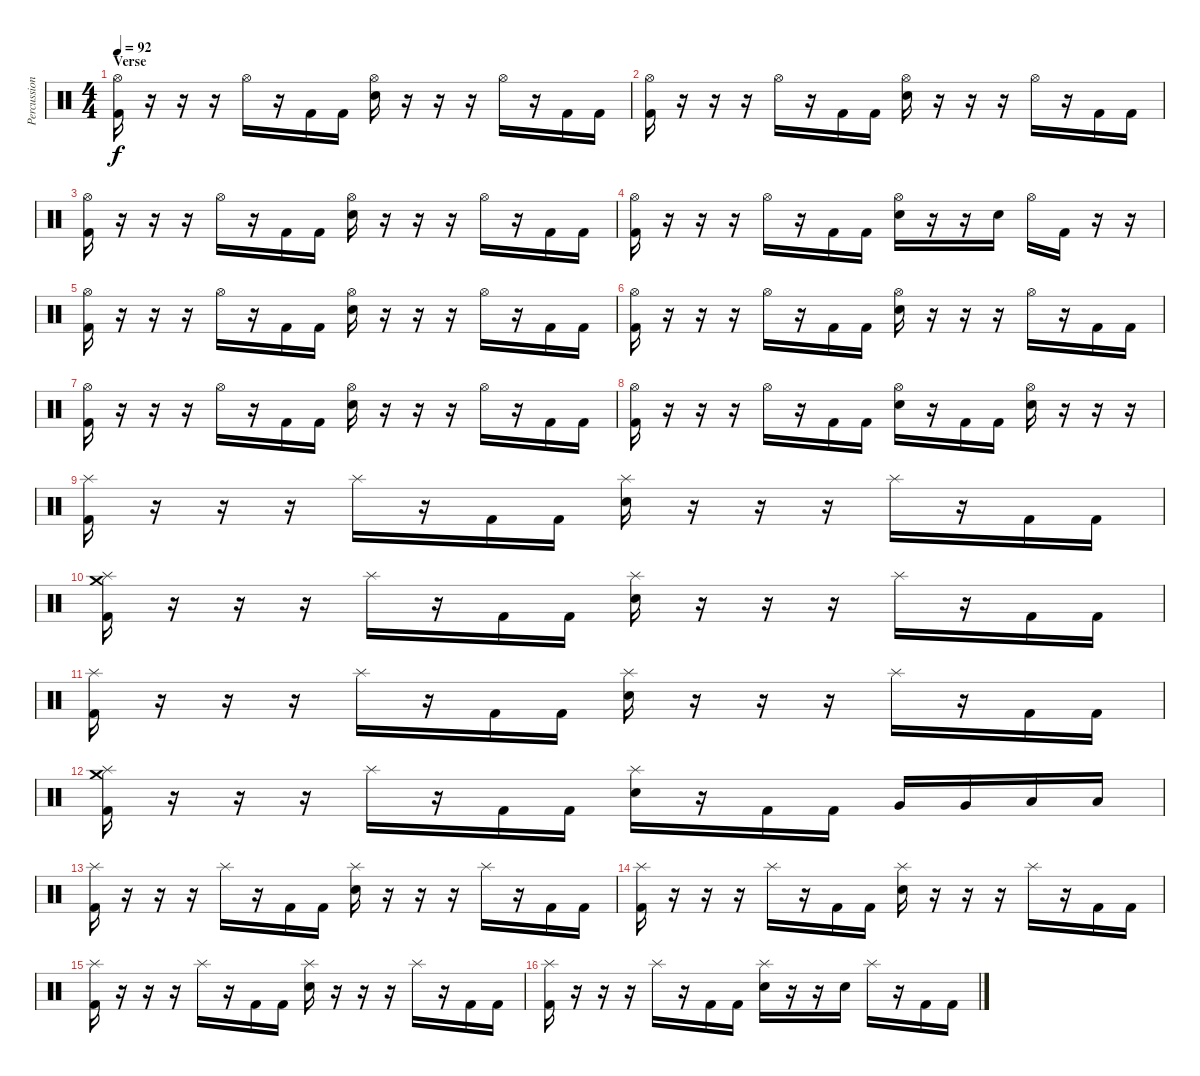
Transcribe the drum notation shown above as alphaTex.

\track ("Percussions" "Percussion") {instrument percussion}
\staff {score}
\articulation defaults
\ts (4 4)
\section ("" "Verse")
\tempo 92
\clef neutral
\ks c
("Kick (hit) 2" "Hi-Hat (open)").16{dy f} r.16 r.16 r.16 "Hi-Hat (open)".16 r.16 "Kick (hit) 2".16 "Kick (hit) 2".16 ("Electric Snare (hit)" "Hi-Hat (open)").16 r.16 r.16 r.16 "Hi-Hat (open)".16 r.16 "Kick (hit) 2".16 "Kick (hit) 2".16 |
("Kick (hit) 2" "Hi-Hat (open)").16 r.16 r.16 r.16 "Hi-Hat (open)".16 r.16 "Kick (hit) 2".16 "Kick (hit) 2".16 ("Electric Snare (hit)" "Hi-Hat (open)").16 r.16 r.16 r.16 "Hi-Hat (open)".16 r.16 "Kick (hit) 2".16 "Kick (hit) 2".16 |
("Kick (hit) 2" "Hi-Hat (open)").16 r.16 r.16 r.16 "Hi-Hat (open)".16 r.16 "Kick (hit) 2".16 "Kick (hit) 2".16 ("Electric Snare (hit)" "Hi-Hat (open)").16 r.16 r.16 r.16 "Hi-Hat (open)".16 r.16 "Kick (hit) 2".16 "Kick (hit) 2".16 |
("Kick (hit) 2" "Hi-Hat (open)").16 r.16 r.16 r.16 "Hi-Hat (open)".16 r.16 "Kick (hit) 2".16 "Kick (hit) 2".16 ("Electric Snare (hit)" "Hi-Hat (open)").16 r.16 r.16 "Electric Snare (hit)".16 "Hi-Hat (open)".16 "Kick (hit) 2".16 r.16 r.16 |
("Kick (hit) 2" "Hi-Hat (open)").16 r.16 r.16 r.16 "Hi-Hat (open)".16 r.16 "Kick (hit) 2".16 "Kick (hit) 2".16 ("Electric Snare (hit)" "Hi-Hat (open)").16 r.16 r.16 r.16 "Hi-Hat (open)".16 r.16 "Kick (hit) 2".16 "Kick (hit) 2".16 |
("Kick (hit) 2" "Hi-Hat (open)").16 r.16 r.16 r.16 "Hi-Hat (open)".16 r.16 "Kick (hit) 2".16 "Kick (hit) 2".16 ("Electric Snare (hit)" "Hi-Hat (open)").16 r.16 r.16 r.16 "Hi-Hat (open)".16 r.16 "Kick (hit) 2".16 "Kick (hit) 2".16 |
("Kick (hit) 2" "Hi-Hat (open)").16 r.16 r.16 r.16 "Hi-Hat (open)".16 r.16 "Kick (hit) 2".16 "Kick (hit) 2".16 ("Electric Snare (hit)" "Hi-Hat (open)").16 r.16 r.16 r.16 "Hi-Hat (open)".16 r.16 "Kick (hit) 2".16 "Kick (hit) 2".16 |
("Kick (hit) 2" "Hi-Hat (open)").16 r.16 r.16 r.16 "Hi-Hat (open)".16 r.16 "Kick (hit) 2".16 "Kick (hit) 2".16 ("Electric Snare (hit)" "Hi-Hat (open)").16 r.16 "Kick (hit) 2".16 "Kick (hit) 2".16 ("Electric Snare (hit)" "Hi-Hat (open)").16 r.16 r.16 r.16 |
("Kick (hit) 2" "Splash (hit)").16 r.16 r.16 r.16 "Splash (hit)".16 r.16 "Kick (hit) 2".16 "Kick (hit) 2".16 ("Electric Snare (hit)" "Splash (hit)").16 r.16 r.16 r.16 "Splash (hit)".16 r.16 "Kick (hit) 2".16 "Kick (hit) 2".16 |
("Kick (hit) 2" "Splash (hit)" "Crash medium (hit)").16 r.16 r.16 r.16 "Splash (hit)".16 r.16 "Kick (hit) 2".16 "Kick (hit) 2".16 ("Electric Snare (hit)" "Splash (hit)").16 r.16 r.16 r.16 "Splash (hit)".16 r.16 "Kick (hit) 2".16 "Kick (hit) 2".16 |
("Kick (hit) 2" "Splash (hit)").16 r.16 r.16 r.16 "Splash (hit)".16 r.16 "Kick (hit) 2".16 "Kick (hit) 2".16 ("Electric Snare (hit)" "Splash (hit)").16 r.16 r.16 r.16 "Splash (hit)".16 r.16 "Kick (hit) 2".16 "Kick (hit) 2".16 |
("Kick (hit) 2" "Splash (hit)" "Crash medium (hit)").16 r.16 r.16 r.16 "Splash (hit)".16 r.16 "Kick (hit) 2".16 "Kick (hit) 2".16 ("Electric Snare (hit)" "Splash (hit)").16 r.16 "Kick (hit) 2".16 "Kick (hit) 2".16 "Very Low Tom (hit)".16 "Very Low Tom (hit)".16 "Low Floor Tom (hit)".16 "Low Floor Tom (hit)".16 |
("Kick (hit) 2" "Splash (hit)").16 r.16 r.16 r.16 "Splash (hit)".16 r.16 "Kick (hit) 2".16 "Kick (hit) 2".16 ("Electric Snare (hit)" "Splash (hit)").16 r.16 r.16 r.16 "Splash (hit)".16 r.16 "Kick (hit) 2".16 "Kick (hit) 2".16 |
("Kick (hit) 2" "Splash (hit)").16 r.16 r.16 r.16 "Splash (hit)".16 r.16 "Kick (hit) 2".16 "Kick (hit) 2".16 ("Electric Snare (hit)" "Splash (hit)").16 r.16 r.16 r.16 "Splash (hit)".16 r.16 "Kick (hit) 2".16 "Kick (hit) 2".16 |
("Kick (hit) 2" "Splash (hit)").16 r.16 r.16 r.16 "Splash (hit)".16 r.16 "Kick (hit) 2".16 "Kick (hit) 2".16 ("Electric Snare (hit)" "Splash (hit)").16 r.16 r.16 r.16 "Splash (hit)".16 r.16 "Kick (hit) 2".16 "Kick (hit) 2".16 |
("Kick (hit) 2" "Splash (hit)").16 r.16 r.16 r.16 "Splash (hit)".16 r.16 "Kick (hit) 2".16 "Kick (hit) 2".16 ("Electric Snare (hit)" "Splash (hit)").16 r.16 r.16 "Electric Snare (hit)".16 "Splash (hit)".16 r.16 "Kick (hit) 2".16 "Kick (hit) 2".16
